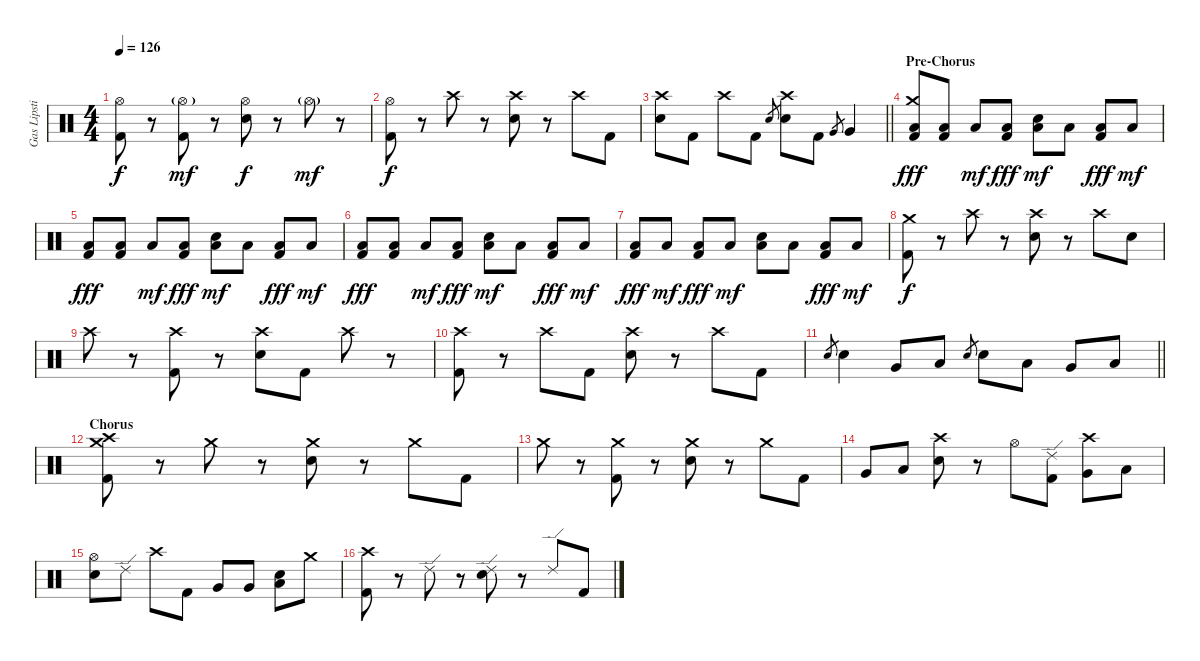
\track ("Gas Lipstick (Drums)" "Gas Lipsti") {instrument percussion}
\staff {score}
\articulation defaults
\ts (4 4)
\tempo 126
\clef neutral
\ks c
("Hi-Hat (open)" "Kick (hit) 2").8{dy f} r.8 ("Hi-Hat (open)"{g} "Kick (hit) 2").8{dy mf} r.8 ("Hi-Hat (open)" "Snare (hit) 2").8{dy f} r.8 "Hi-Hat (open)"{g}.8{dy mf} r.8 |
("Hi-Hat (open)" "Kick (hit) 2").8{dy f} r.8 "Crash high (hit)".8 r.8 ("Crash high (hit)" "Snare (hit) 2").8 r.8 "Crash high (hit)".8 "Kick (hit) 2".8 |
\barLineRight lightlight
("Crash high (hit)" "Snare (hit) 2").8 "Kick (hit) 2".8 "Crash high (hit)".8 "Kick (hit) 2".8 "Snare (hit) 2".8{gr} ("Crash high (hit)" "Snare (hit) 2").8 "Kick (hit) 2".8 "Very Low Tom (hit)".8{gr} "Very Low Tom (hit)".4 |
\section ("" "Pre-Chorus")
("Crash medium (hit)" "Low Floor Tom (hit)" "Kick (hit) 2").8{dy fff} ("Low Floor Tom (hit)" "Kick (hit) 2").8 "Low Floor Tom (hit)".8{dy mf} ("Low Floor Tom (hit)" "Kick (hit) 2").8{dy fff} ("Low Floor Tom (hit)" "Snare (hit) 2").8{dy mf} "Low Floor Tom (hit)".8 ("Low Floor Tom (hit)" "Kick (hit) 2").8{dy fff} "Low Floor Tom (hit)".8{dy mf} |
("Low Floor Tom (hit)" "Kick (hit) 2").8{dy fff} ("Low Floor Tom (hit)" "Kick (hit) 2").8 "Low Floor Tom (hit)".8{dy mf} ("Low Floor Tom (hit)" "Kick (hit) 2").8{dy fff} ("Low Floor Tom (hit)" "Snare (hit) 2").8{dy mf} "Low Floor Tom (hit)".8 ("Low Floor Tom (hit)" "Kick (hit) 2").8{dy fff} "Low Floor Tom (hit)".8{dy mf} |
("Low Floor Tom (hit)" "Kick (hit) 2").8{dy fff} ("Low Floor Tom (hit)" "Kick (hit) 2").8 "Low Floor Tom (hit)".8{dy mf} ("Low Floor Tom (hit)" "Kick (hit) 2").8{dy fff} ("Low Floor Tom (hit)" "Snare (hit) 2").8{dy mf} "Low Floor Tom (hit)".8 ("Low Floor Tom (hit)" "Kick (hit) 2").8{dy fff} "Low Floor Tom (hit)".8{dy mf} |
("Low Floor Tom (hit)" "Kick (hit) 2").8{dy fff} "Low Floor Tom (hit)".8{dy mf} ("Low Floor Tom (hit)" "Kick (hit) 2").8{dy fff} "Low Floor Tom (hit)".8{dy mf} ("Low Floor Tom (hit)" "Snare (hit) 2").8 "Low Floor Tom (hit)".8 ("Low Floor Tom (hit)" "Kick (hit) 2").8{dy fff} "Low Floor Tom (hit)".8{dy mf} |
("Crash medium (hit)" "Kick (hit) 2").8{dy f} r.8 "Crash high (hit)".8 r.8 ("Crash high (hit)" "Snare (hit) 2").8 r.8 "Crash high (hit)".8 "Snare (hit) 2".8 |
"Crash high (hit)".8 r.8 ("Crash high (hit)" "Kick (hit) 2").8 r.8 ("Crash high (hit)" "Snare (hit) 2").8 "Kick (hit) 2".8 "Crash high (hit)".8 r.8 |
("Crash high (hit)" "Kick (hit) 2").8 r.8 "Crash high (hit)".8 "Kick (hit) 2".8 ("Crash high (hit)" "Snare (hit) 2").8 r.8 "Crash high (hit)".8 "Kick (hit) 2".8 |
\barLineRight lightlight "Snare (hit) 2".8{gr} "Snare (hit) 2".4 "Very Low Tom (hit)".8 "Low Floor Tom (hit)".8 "Snare (hit) 2".8{gr} "Snare (hit) 2".8 "Low Tom (hit)".8 "Very Low Tom (hit)".8 "Low Floor Tom (hit)".8
|
\section ("" "Chorus")
("Crash high (hit)" "Crash medium (hit)" "Kick (hit) 2").8 r.8 "Crash medium (hit)".8 r.8 ("Crash medium (hit)" "Snare (hit) 2").8 r.8 "Crash medium (hit)".8 "Kick (hit) 2".8 |
"Crash medium (hit)".8 r.8 ("Crash medium (hit)" "Kick (hit) 2").8 r.8 ("Crash medium (hit)" "Snare (hit) 2").8 r.8 "Crash medium (hit)".8 "Kick (hit) 2".8 |
"Very Low Tom (hit)".8 "Low Floor Tom (hit)".8 ("Crash high (hit)" "Snare (hit) 2").8 r.8 "Hi-Hat (open)".8 ("Ride (edge) 2" "Kick (hit) 2").8 ("Crash high (hit)" "Very Low Tom (hit)").8 "Low Floor Tom (hit)".8 |
("Hi-Hat (open)" "Snare (hit) 2").8 "Ride (edge) 2".8 "Crash high (hit)".8 "Kick (hit) 2".8 "Very Low Tom (hit)".8 "Very Low Tom (hit)".8 ("Low Floor Tom (hit)" "Snare (hit) 2").8 "Crash medium (hit)".8 |
("Crash high (hit)" "Kick (hit) 2").8 r.8 "Ride (edge) 2".8 r.8 ("Ride (edge) 2" "Snare (hit) 2").8 r.8 "Ride (edge) 2".8 "Kick (hit) 2".8
